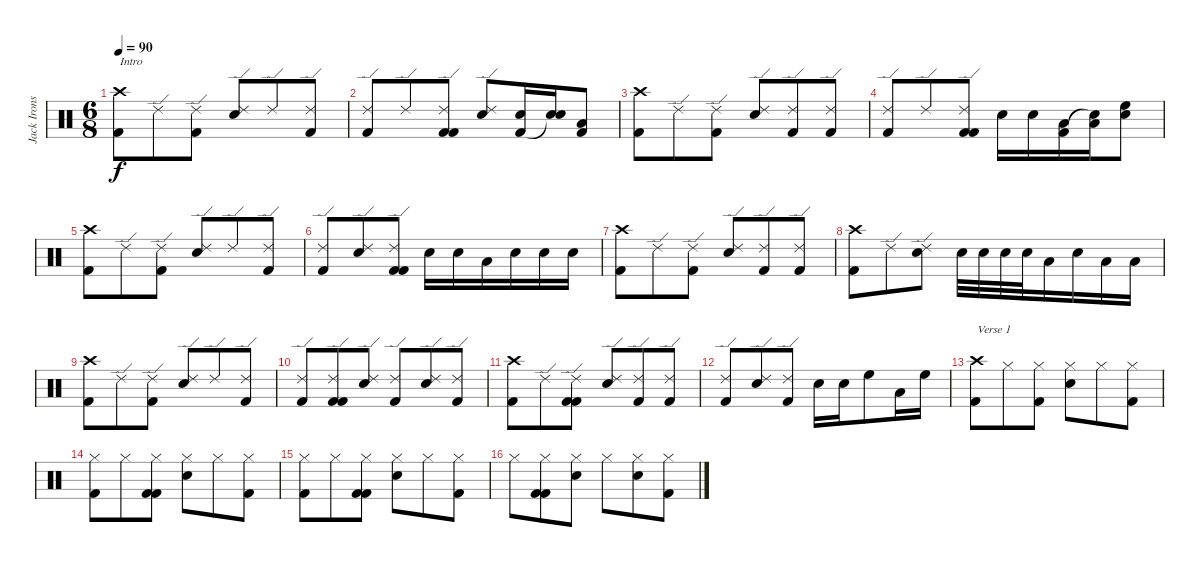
\track ("Jack Irons" "Jack Irons") {instrument percussion}
\staff {score}
\articulation defaults
\ts (6 8)
\tempo 90
\clef neutral
\ks c
("Crash high (hit)" "Kick (hit) 2").8{txt "Intro" dy f} "Ride (edge) 2".8 ("Ride (edge) 2" "Kick (hit) 2").8 ("Ride (edge) 2" "Snare (hit) 2").8 "Ride (edge) 2".8 ("Ride (edge) 2" "Kick (hit) 2").8 |
("Ride (edge) 2" "Kick (hit) 2").8 "Ride (edge) 2".8 ("Ride (edge) 2" "Kick (hit) 2" "Kick (hit) 2").8 ("Ride (edge) 2" "Snare (hit) 2").8 ("Snare (hit) 2" "Kick (hit) 2").16 ("Snare (hit) 2" "Snare (hit)"{t}).16 ("Low Tom (hit)" "Kick (hit) 2").8 |
("Crash high (hit)" "Kick (hit) 2").8 "Ride (edge) 2".8 ("Ride (edge) 2" "Kick (hit) 2").8 ("Ride (edge) 2" "Snare (hit) 2").8 ("Ride (edge) 2" "Kick (hit) 2").8 ("Ride (edge) 2" "Kick (hit) 2").8 |
("Ride (edge) 2" "Kick (hit) 2").8 "Ride (edge) 2".8 ("Ride (edge) 2" "Kick (hit) 2" "Kick (hit) 2").8 "Snare (hit) 2".16 "Snare (hit) 2".16 ("Low Tom (hit)" "Kick (hit) 2").16 ("Low Tom (hit)" "Snare (hit)"{t}).16 ("High Floor Tom (hit)" "Snare (hit) 2").8 |
("Crash high (hit)" "Kick (hit) 2").8 "Ride (edge) 2".8 ("Ride (edge) 2" "Kick (hit) 2").8 ("Ride (edge) 2" "Snare (hit) 2").8 "Ride (edge) 2".8 ("Ride (edge) 2" "Kick (hit) 2").8 |
("Ride (edge) 2" "Kick (hit) 2").8 ("Ride (edge) 2" "Snare (hit) 2").8 ("Ride (edge) 2" "Kick (hit) 2" "Kick (hit) 2").8 "Snare (hit) 2".16 "Snare (hit) 2".16 "Low Tom (hit)".16 "Snare (hit) 2".16 "Snare (hit) 2".16 "Snare (hit) 2".16 |
("Crash high (hit)" "Kick (hit) 2").8 "Ride (edge) 2".8 ("Ride (edge) 2" "Kick (hit) 2").8 ("Ride (edge) 2" "Snare (hit) 2").8 ("Ride (edge) 2" "Kick (hit) 2").8 ("Ride (edge) 2" "Kick (hit) 2").8 |
("Crash high (hit)" "Kick (hit) 2").8 "Ride (edge) 2".8 ("Ride (edge) 2" "Snare (hit) 2").8 "Snare (hit) 2".32 "Snare (hit) 2".32 "Snare (hit) 2".32 "Snare (hit) 2".32 "Low Tom (hit)".16 "Snare (hit) 2".16 "Low Tom (hit)".16 "Low Tom (hit)".16 |
("Crash high (hit)" "Kick (hit) 2").8 "Ride (edge) 2".8 ("Ride (edge) 2" "Kick (hit) 2").8 ("Ride (edge) 2" "Snare (hit) 2").8 "Ride (edge) 2".8 ("Ride (edge) 2" "Kick (hit) 2").8 |
("Ride (edge) 2" "Kick (hit) 2").8 ("Ride (edge) 2" "Kick (hit) 2" "Kick (hit) 2").8 ("Ride (edge) 2" "Snare (hit) 2").8 ("Ride (edge) 2" "Kick (hit) 2").8 ("Ride (edge) 2" "Snare (hit) 2").8 ("Ride (edge) 2" "Kick (hit) 2").8 |
("Crash high (hit)" "Kick (hit) 2").8 "Ride (edge) 2".8 ("Ride (edge) 2" "Kick (hit) 2" "Kick (hit) 2").8 ("Ride (edge) 2" "Snare (hit) 2").8 ("Ride (edge) 2" "Kick (hit) 2").8 ("Ride (edge) 2" "Kick (hit) 2").8 |
("Ride (edge) 2" "Kick (hit) 2").8 ("Ride (edge) 2" "Snare (hit) 2").8 ("Ride (edge) 2" "Kick (hit) 2").8 "Snare (hit) 2".16 "Snare (hit) 2".16 "High Floor Tom (hit)".8 "Low Tom (hit)".16 "High Floor Tom (hit)".16 |
("Crash high (hit)" "Kick (hit) 2").8{txt "Verse 1"} "Hi-Hat (closed)".8 ("Hi-Hat (closed)" "Kick (hit) 2").8 ("Hi-Hat (closed)" "Snare (hit) 2").8 "Hi-Hat (closed)".8 ("Hi-Hat (closed)" "Kick (hit) 2").8 |
("Hi-Hat (closed)" "Kick (hit) 2").8 "Hi-Hat (closed)".8 ("Hi-Hat (closed)" "Kick (hit) 2" "Kick (hit) 2").8 ("Hi-Hat (closed)" "Snare (hit) 2").8 "Hi-Hat (closed)".8 ("Hi-Hat (closed)" "Kick (hit) 2").8 |
("Hi-Hat (closed)" "Kick (hit) 2").8 "Hi-Hat (closed)".8 ("Hi-Hat (closed)" "Kick (hit) 2" "Kick (hit) 2").8 ("Hi-Hat (closed)" "Snare (hit) 2").8 "Hi-Hat (closed)".8 ("Hi-Hat (closed)" "Kick (hit) 2").8 |
"Hi-Hat (closed)".8 ("Hi-Hat (closed)" "Kick (hit) 2" "Kick (hit) 2").8 ("Hi-Hat (closed)" "Snare (hit) 2").8 "Hi-Hat (closed)".8 ("Hi-Hat (closed)" "Snare (hit) 2").8 ("Hi-Hat (closed)" "Kick (hit) 2").8
